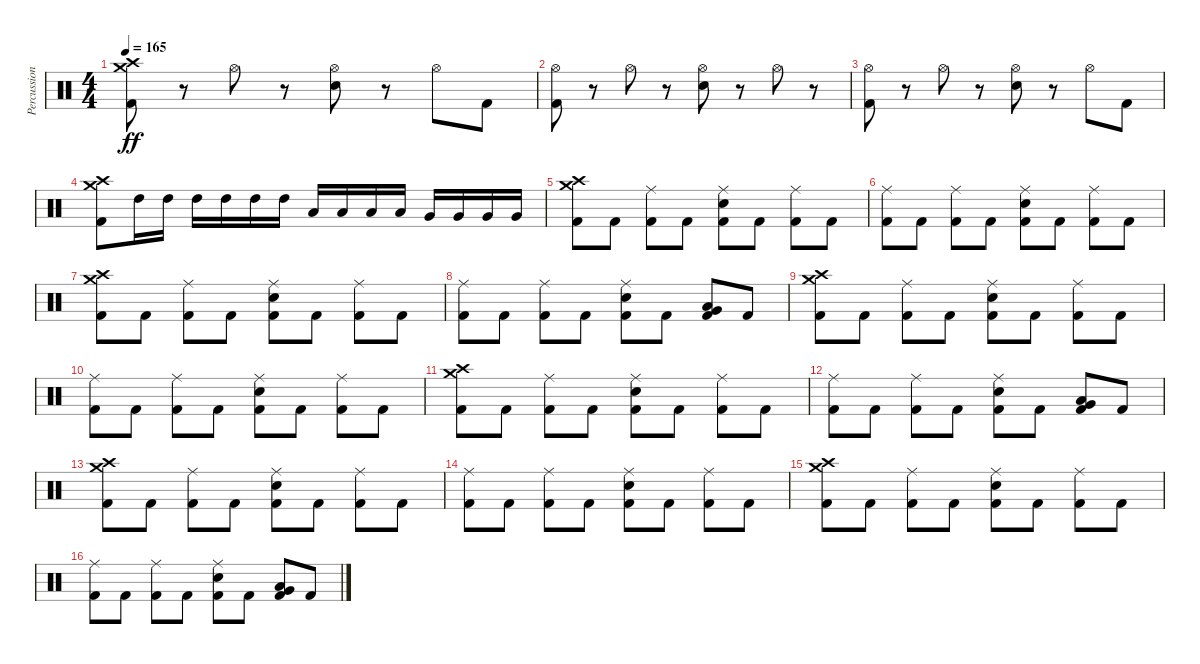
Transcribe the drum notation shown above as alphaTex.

\track ("Percussion" "Percussion") {instrument percussion}
\staff {score}
\articulation defaults
\ts (4 4)
\tempo 165
\clef neutral
\ks c
("Kick (hit) 2" "Crash medium (hit)" "Crash high (hit)").8{dy ff} r.8 "Hi-Hat (open)".8 r.8 ("Electric Snare (hit)" "Hi-Hat (open)").8 r.8 "Hi-Hat (open)".8 "Kick (hit) 2".8 |
("Kick (hit) 2" "Hi-Hat (open)").8 r.8 "Hi-Hat (open)".8 r.8 ("Electric Snare (hit)" "Hi-Hat (open)").8 r.8 "Hi-Hat (open)".8 r.8 |
("Kick (hit) 2" "Hi-Hat (open)").8 r.8 "Hi-Hat (open)".8 r.8 ("Electric Snare (hit)" "Hi-Hat (open)").8 r.8 "Hi-Hat (open)".8 "Kick (hit) 2".8 |
("Kick (hit) 2" "Crash medium (hit)" "Crash high (hit)").8 "High Tom (hit)".16 "High Tom (hit)".16 "High Tom (hit)".16 "High Tom (hit)".16 "High Tom (hit)".16 "High Tom (hit)".16 "Low Tom (hit)".16 "Low Tom (hit)".16 "Low Tom (hit)".16 "Low Tom (hit)".16 "Very Low Tom (hit)".16 "Very Low Tom (hit)".16 "Very Low Tom (hit)".16 "Very Low Tom (hit)".16 |
("Kick (hit) 2" "Crash medium (hit)" "Crash high (hit)").8 "Kick (hit) 2".8 ("Kick (hit) 2" "Ride (middle)").8 "Kick (hit) 2".8 ("Kick (hit) 2" "Electric Snare (hit)" "Ride (middle)").8 "Kick (hit) 2".8 ("Kick (hit) 2" "Ride (middle)").8 "Kick (hit) 2".8 |
("Kick (hit) 2" "Ride (middle)").8 "Kick (hit) 2".8 ("Kick (hit) 2" "Ride (middle)").8 "Kick (hit) 2".8 ("Kick (hit) 2" "Electric Snare (hit)" "Ride (middle)").8 "Kick (hit) 2".8 ("Kick (hit) 2" "Ride (middle)").8 "Kick (hit) 2".8 |
("Kick (hit) 2" "Crash medium (hit)" "Crash high (hit)").8 "Kick (hit) 2".8 ("Kick (hit) 2" "Ride (middle)").8 "Kick (hit) 2".8 ("Kick (hit) 2" "Electric Snare (hit)" "Ride (middle)").8 "Kick (hit) 2".8 ("Kick (hit) 2" "Ride (middle)").8 "Kick (hit) 2".8 |
("Kick (hit) 2" "Ride (middle)").8 "Kick (hit) 2".8 ("Kick (hit) 2" "Ride (middle)").8 "Kick (hit) 2".8 ("Kick (hit) 2" "Electric Snare (hit)" "Ride (middle)").8 "Kick (hit) 2".8 ("Kick (hit) 2" "Very Low Tom (hit)" "Low Tom (hit)").8 "Kick (hit) 2".8 |
("Kick (hit) 2" "Crash medium (hit)" "Crash high (hit)").8 "Kick (hit) 2".8 ("Kick (hit) 2" "Ride (middle)").8 "Kick (hit) 2".8 ("Kick (hit) 2" "Electric Snare (hit)" "Ride (middle)").8 "Kick (hit) 2".8 ("Kick (hit) 2" "Ride (middle)").8 "Kick (hit) 2".8 |
("Kick (hit) 2" "Ride (middle)").8 "Kick (hit) 2".8 ("Kick (hit) 2" "Ride (middle)").8 "Kick (hit) 2".8 ("Kick (hit) 2" "Electric Snare (hit)" "Ride (middle)").8 "Kick (hit) 2".8 ("Kick (hit) 2" "Ride (middle)").8 "Kick (hit) 2".8 |
("Kick (hit) 2" "Crash medium (hit)" "Crash high (hit)").8 "Kick (hit) 2".8 ("Kick (hit) 2" "Ride (middle)").8 "Kick (hit) 2".8 ("Kick (hit) 2" "Electric Snare (hit)" "Ride (middle)").8 "Kick (hit) 2".8 ("Kick (hit) 2" "Ride (middle)").8 "Kick (hit) 2".8 |
("Kick (hit) 2" "Ride (middle)").8 "Kick (hit) 2".8 ("Kick (hit) 2" "Ride (middle)").8 "Kick (hit) 2".8 ("Kick (hit) 2" "Electric Snare (hit)" "Ride (middle)").8 "Kick (hit) 2".8 ("Kick (hit) 2" "Very Low Tom (hit)" "Low Tom (hit)").8 "Kick (hit) 2".8 |
("Kick (hit) 2" "Crash medium (hit)" "Crash high (hit)").8 "Kick (hit) 2".8 ("Kick (hit) 2" "Ride (middle)").8 "Kick (hit) 2".8 ("Kick (hit) 2" "Electric Snare (hit)" "Ride (middle)").8 "Kick (hit) 2".8 ("Kick (hit) 2" "Ride (middle)").8 "Kick (hit) 2".8 |
("Kick (hit) 2" "Ride (middle)").8 "Kick (hit) 2".8 ("Kick (hit) 2" "Ride (middle)").8 "Kick (hit) 2".8 ("Kick (hit) 2" "Electric Snare (hit)" "Ride (middle)").8 "Kick (hit) 2".8 ("Kick (hit) 2" "Ride (middle)").8 "Kick (hit) 2".8 |
("Kick (hit) 2" "Crash medium (hit)" "Crash high (hit)").8 "Kick (hit) 2".8 ("Kick (hit) 2" "Ride (middle)").8 "Kick (hit) 2".8 ("Kick (hit) 2" "Electric Snare (hit)" "Ride (middle)").8 "Kick (hit) 2".8 ("Kick (hit) 2" "Ride (middle)").8 "Kick (hit) 2".8 |
("Kick (hit) 2" "Ride (middle)").8 "Kick (hit) 2".8 ("Kick (hit) 2" "Ride (middle)").8 "Kick (hit) 2".8 ("Kick (hit) 2" "Electric Snare (hit)" "Ride (middle)").8 "Kick (hit) 2".8 ("Kick (hit) 2" "Very Low Tom (hit)" "Low Tom (hit)").8 "Kick (hit) 2".8
